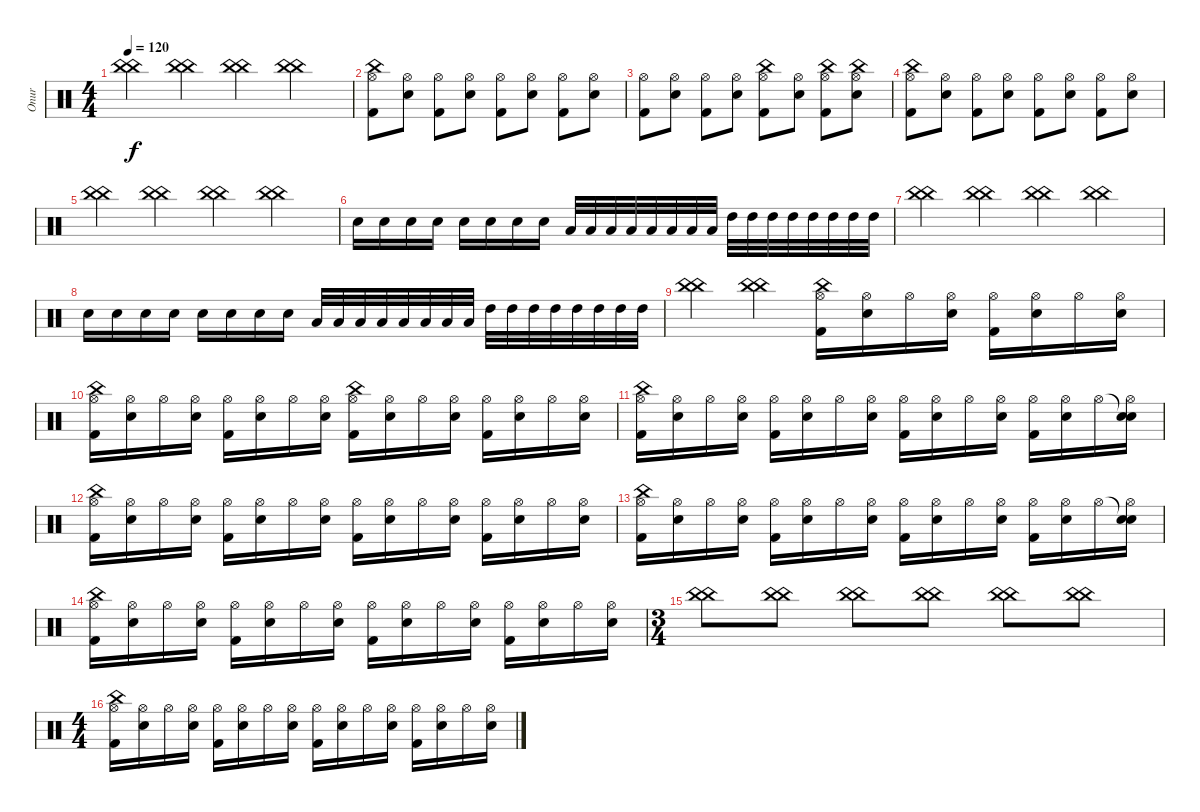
\track ("Onur" "Onur") {instrument percussion}
\staff {score}
\articulation defaults
\ts (4 4)
\tempo 120
\clef neutral
\ks c
("China (hit)" "China (hit)").4{dy f} ("China (hit)" "China (hit)").4 ("China (hit)" "China (hit)").4 ("China (hit)" "China (hit)").4 |
("China (hit)" "Hi-Hat (open)" "Kick (hit) 2").8 ("Hi-Hat (open)" "Snare (hit) 2").8 ("Hi-Hat (open)" "Kick (hit) 2").8 ("Hi-Hat (open)" "Snare (hit) 2").8 ("Hi-Hat (open)" "Kick (hit) 2").8 ("Hi-Hat (open)" "Snare (hit) 2").8 ("Hi-Hat (open)" "Kick (hit) 2").8 ("Hi-Hat (open)" "Snare (hit) 2").8 |
("Hi-Hat (open)" "Kick (hit) 2").8 ("Hi-Hat (open)" "Snare (hit) 2").8 ("Hi-Hat (open)" "Kick (hit) 2").8 ("Hi-Hat (open)" "Snare (hit) 2").8 ("China (hit)" "Hi-Hat (open)" "Kick (hit) 2").8 ("Hi-Hat (open)" "Snare (hit) 2").8 ("China (hit)" "Hi-Hat (open)" "Kick (hit) 2").8 ("China (hit)" "Hi-Hat (open)" "Snare (hit) 2").8 |
("China (hit)" "Hi-Hat (open)" "Kick (hit) 2").8 ("Hi-Hat (open)" "Snare (hit) 2").8 ("Hi-Hat (open)" "Kick (hit) 2").8 ("Hi-Hat (open)" "Snare (hit) 2").8 ("Hi-Hat (open)" "Kick (hit) 2").8 ("Hi-Hat (open)" "Snare (hit) 2").8 ("Hi-Hat (open)" "Kick (hit) 2").8 ("Hi-Hat (open)" "Snare (hit) 2").8 |
("China (hit)" "China (hit)").4 ("China (hit)" "China (hit)").4 ("China (hit)" "China (hit)").4 ("China (hit)" "China (hit)").4 |
"Snare (hit) 2".16 "Snare (hit) 2".16 "Snare (hit) 2".16 "Snare (hit) 2".16 "Snare (hit) 2".16 "Snare (hit) 2".16 "Snare (hit) 2".16 "Snare (hit) 2".16 "Low Tom (hit)".32 "Low Tom (hit)".32 "Low Tom (hit)".32 "Low Tom (hit)".32 "Low Tom (hit)".32 "Low Tom (hit)".32 "Low Tom (hit)".32 "Low Tom (hit)".32 "High Tom (hit)".32 "High Tom (hit)".32 "High Tom (hit)".32 "High Tom (hit)".32 "High Tom (hit)".32 "High Tom (hit)".32 "High Tom (hit)".32 "High Tom (hit)".32 |
("China (hit)" "China (hit)").4 ("China (hit)" "China (hit)").4 ("China (hit)" "China (hit)").4 ("China (hit)" "China (hit)").4 |
"Snare (hit) 2".16 "Snare (hit) 2".16 "Snare (hit) 2".16 "Snare (hit) 2".16 "Snare (hit) 2".16 "Snare (hit) 2".16 "Snare (hit) 2".16 "Snare (hit) 2".16 "Low Tom (hit)".32 "Low Tom (hit)".32 "Low Tom (hit)".32 "Low Tom (hit)".32 "Low Tom (hit)".32 "Low Tom (hit)".32 "Low Tom (hit)".32 "Low Tom (hit)".32 "High Tom (hit)".32 "High Tom (hit)".32 "High Tom (hit)".32 "High Tom (hit)".32 "High Tom (hit)".32 "High Tom (hit)".32 "High Tom (hit)".32 "High Tom (hit)".32 |
("China (hit)" "China (hit)").4 ("China (hit)" "China (hit)").4 ("China (hit)" "Hi-Hat (open)" "Kick (hit) 2").16 ("Hi-Hat (open)" "Snare (hit) 2").16 "Hi-Hat (open)".16 ("Hi-Hat (open)" "Snare (hit) 2").16 ("Hi-Hat (open)" "Kick (hit) 2").16 ("Hi-Hat (open)" "Snare (hit) 2").16 "Hi-Hat (open)".16 ("Hi-Hat (open)" "Snare (hit) 2").16 |
("China (hit)" "Hi-Hat (open)" "Kick (hit) 2").16 ("Hi-Hat (open)" "Snare (hit) 2").16 "Hi-Hat (open)".16 ("Hi-Hat (open)" "Snare (hit) 2").16 ("Hi-Hat (open)" "Kick (hit) 2").16 ("Hi-Hat (open)" "Snare (hit) 2").16 "Hi-Hat (open)".16 ("Hi-Hat (open)" "Snare (hit) 2").16 ("China (hit)" "Hi-Hat (open)" "Kick (hit) 2").16 ("Hi-Hat (open)" "Snare (hit) 2").16 "Hi-Hat (open)".16 ("Hi-Hat (open)" "Snare (hit) 2").16 ("Hi-Hat (open)" "Kick (hit) 2").16 ("Hi-Hat (open)" "Snare (hit) 2").16 "Hi-Hat (open)".16 ("Hi-Hat (open)" "Snare (hit) 2").16 |
("China (hit)" "Hi-Hat (open)" "Kick (hit) 2").16 ("Hi-Hat (open)" "Snare (hit) 2").16 "Hi-Hat (open)".16 ("Hi-Hat (open)" "Snare (hit) 2").16 ("Hi-Hat (open)" "Kick (hit) 2").16 ("Hi-Hat (open)" "Snare (hit) 2").16 "Hi-Hat (open)".16 ("Hi-Hat (open)" "Snare (hit) 2").16 ("Hi-Hat (open)" "Kick (hit) 2").16 ("Hi-Hat (open)" "Snare (hit) 2").16 "Hi-Hat (open)".16 ("Hi-Hat (open)" "Snare (hit) 2").16 ("Hi-Hat (open)" "Kick (hit) 2").16 ("Hi-Hat (open)" "Snare (hit) 2").16 "Hi-Hat (open)".16 ("Snare (hit)"{t} "Hi-Hat (open)" "Snare (hit) 2").16 |
("China (hit)" "Hi-Hat (open)" "Kick (hit) 2").16 ("Hi-Hat (open)" "Snare (hit) 2").16 "Hi-Hat (open)".16 ("Hi-Hat (open)" "Snare (hit) 2").16 ("Hi-Hat (open)" "Kick (hit) 2").16 ("Hi-Hat (open)" "Snare (hit) 2").16 "Hi-Hat (open)".16 ("Hi-Hat (open)" "Snare (hit) 2").16 ("Hi-Hat (open)" "Kick (hit) 2").16 ("Hi-Hat (open)" "Snare (hit) 2").16 "Hi-Hat (open)".16 ("Hi-Hat (open)" "Snare (hit) 2").16 ("Hi-Hat (open)" "Kick (hit) 2").16 ("Hi-Hat (open)" "Snare (hit) 2").16 "Hi-Hat (open)".16 ("Hi-Hat (open)" "Snare (hit) 2").16 |
("China (hit)" "Hi-Hat (open)" "Kick (hit) 2").16 ("Hi-Hat (open)" "Snare (hit) 2").16 "Hi-Hat (open)".16 ("Hi-Hat (open)" "Snare (hit) 2").16 ("Hi-Hat (open)" "Kick (hit) 2").16 ("Hi-Hat (open)" "Snare (hit) 2").16 "Hi-Hat (open)".16 ("Hi-Hat (open)" "Snare (hit) 2").16 ("Hi-Hat (open)" "Kick (hit) 2").16 ("Hi-Hat (open)" "Snare (hit) 2").16 "Hi-Hat (open)".16 ("Hi-Hat (open)" "Snare (hit) 2").16 ("Hi-Hat (open)" "Kick (hit) 2").16 ("Hi-Hat (open)" "Snare (hit) 2").16 "Hi-Hat (open)".16 ("Snare (hit)"{t} "Hi-Hat (open)" "Snare (hit) 2").16 |
("China (hit)" "Hi-Hat (open)" "Kick (hit) 2").16 ("Hi-Hat (open)" "Snare (hit) 2").16 "Hi-Hat (open)".16 ("Hi-Hat (open)" "Snare (hit) 2").16 ("Hi-Hat (open)" "Kick (hit) 2").16 ("Hi-Hat (open)" "Snare (hit) 2").16 "Hi-Hat (open)".16 ("Hi-Hat (open)" "Snare (hit) 2").16 ("Hi-Hat (open)" "Kick (hit) 2").16 ("Hi-Hat (open)" "Snare (hit) 2").16 "Hi-Hat (open)".16 ("Hi-Hat (open)" "Snare (hit) 2").16 ("Hi-Hat (open)" "Kick (hit) 2").16 ("Hi-Hat (open)" "Snare (hit) 2").16 "Hi-Hat (open)".16 ("Hi-Hat (open)" "Snare (hit) 2").16 |
\ts (3 4)
("China (hit)" "China (hit)").8 ("China (hit)" "China (hit)").8 ("China (hit)" "China (hit)").8 ("China (hit)" "China (hit)").8 ("China (hit)" "China (hit)").8 ("China (hit)" "China (hit)").8 |
\ts (4 4)
("China (hit)" "Hi-Hat (open)" "Kick (hit) 2").16 ("Hi-Hat (open)" "Snare (hit) 2").16 "Hi-Hat (open)".16 ("Hi-Hat (open)" "Snare (hit) 2").16 ("Hi-Hat (open)" "Kick (hit) 2").16 ("Hi-Hat (open)" "Snare (hit) 2").16 "Hi-Hat (open)".16 ("Hi-Hat (open)" "Snare (hit) 2").16 ("Hi-Hat (open)" "Kick (hit) 2").16 ("Hi-Hat (open)" "Snare (hit) 2").16 "Hi-Hat (open)".16 ("Hi-Hat (open)" "Snare (hit) 2").16 ("Hi-Hat (open)" "Kick (hit) 2").16 ("Hi-Hat (open)" "Snare (hit) 2").16 "Hi-Hat (open)".16 ("Hi-Hat (open)" "Snare (hit) 2").16
